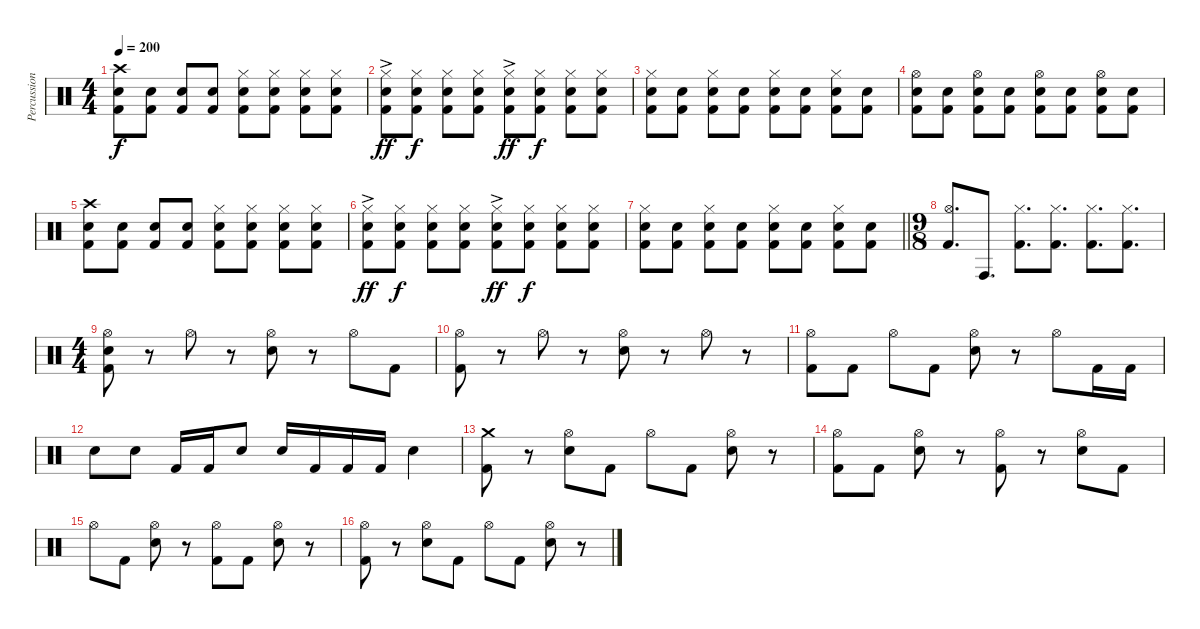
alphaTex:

\track ("Percussions" "Percussion") {instrument percussion}
\staff {score}
\articulation defaults
\ts (4 4)
\tempo 200
\clef neutral
\ks c
("Crash high (hit)" "Electric Snare (hit)" "Kick (hit) 2").8{dy f} ("Electric Snare (hit)" "Kick (hit) 2").8 ("Electric Snare (hit)" "Kick (hit) 2").8 ("Electric Snare (hit)" "Kick (hit) 2").8 ("Hi-Hat (closed)" "Electric Snare (hit)" "Kick (hit) 2").8 ("Hi-Hat (closed)" "Electric Snare (hit)" "Kick (hit) 2").8 ("Hi-Hat (closed)" "Electric Snare (hit)" "Kick (hit) 2").8 ("Hi-Hat (closed)" "Electric Snare (hit)" "Kick (hit) 2").8 |
("Hi-Hat (closed)"{ac} "Electric Snare (hit)" "Kick (hit) 2").8{dy ff} ("Hi-Hat (closed)" "Electric Snare (hit)" "Kick (hit) 2").8{dy f} ("Hi-Hat (closed)" "Electric Snare (hit)" "Kick (hit) 2").8 ("Hi-Hat (closed)" "Electric Snare (hit)" "Kick (hit) 2").8 ("Hi-Hat (closed)"{ac} "Electric Snare (hit)" "Kick (hit) 2").8{dy ff} ("Hi-Hat (closed)" "Electric Snare (hit)" "Kick (hit) 2").8{dy f} ("Hi-Hat (closed)" "Electric Snare (hit)" "Kick (hit) 2").8 ("Hi-Hat (closed)" "Electric Snare (hit)" "Kick (hit) 2").8 |
("Hi-Hat (closed)" "Electric Snare (hit)" "Kick (hit) 2").8 ("Electric Snare (hit)" "Kick (hit) 2").8 ("Hi-Hat (closed)" "Electric Snare (hit)" "Kick (hit) 2").8 ("Electric Snare (hit)" "Kick (hit) 2").8 ("Hi-Hat (closed)" "Electric Snare (hit)" "Kick (hit) 2").8 ("Electric Snare (hit)" "Kick (hit) 2").8 ("Hi-Hat (closed)" "Electric Snare (hit)" "Kick (hit) 2").8 ("Electric Snare (hit)" "Kick (hit) 2").8 |
("Hi-Hat (open)" "Electric Snare (hit)" "Kick (hit) 2").8 ("Electric Snare (hit)" "Kick (hit) 2").8 ("Hi-Hat (open)" "Electric Snare (hit)" "Kick (hit) 2").8 ("Electric Snare (hit)" "Kick (hit) 2").8 ("Hi-Hat (open)" "Electric Snare (hit)" "Kick (hit) 2").8 ("Electric Snare (hit)" "Kick (hit) 2").8 ("Hi-Hat (open)" "Electric Snare (hit)" "Kick (hit) 2").8 ("Electric Snare (hit)" "Kick (hit) 2").8 |
("Crash high (hit)" "Electric Snare (hit)" "Kick (hit) 2").8 ("Electric Snare (hit)" "Kick (hit) 2").8 ("Electric Snare (hit)" "Kick (hit) 2").8 ("Electric Snare (hit)" "Kick (hit) 2").8 ("Hi-Hat (closed)" "Electric Snare (hit)" "Kick (hit) 2").8 ("Hi-Hat (closed)" "Electric Snare (hit)" "Kick (hit) 2").8 ("Hi-Hat (closed)" "Electric Snare (hit)" "Kick (hit) 2").8 ("Hi-Hat (closed)" "Electric Snare (hit)" "Kick (hit) 2").8 |
("Hi-Hat (closed)"{ac} "Electric Snare (hit)" "Kick (hit) 2").8{dy ff} ("Hi-Hat (closed)" "Electric Snare (hit)" "Kick (hit) 2").8{dy f} ("Hi-Hat (closed)" "Electric Snare (hit)" "Kick (hit) 2").8 ("Hi-Hat (closed)" "Electric Snare (hit)" "Kick (hit) 2").8 ("Hi-Hat (closed)"{ac} "Electric Snare (hit)" "Kick (hit) 2").8{dy ff} ("Hi-Hat (closed)" "Electric Snare (hit)" "Kick (hit) 2").8{dy f} ("Hi-Hat (closed)" "Electric Snare (hit)" "Kick (hit) 2").8 ("Hi-Hat (closed)" "Electric Snare (hit)" "Kick (hit) 2").8 |
\barLineRight lightlight
("Hi-Hat (closed)" "Electric Snare (hit)" "Kick (hit) 2").8 ("Electric Snare (hit)" "Kick (hit) 2").8 ("Hi-Hat (closed)" "Electric Snare (hit)" "Kick (hit) 2").8 ("Electric Snare (hit)" "Kick (hit) 2").8 ("Hi-Hat (closed)" "Electric Snare (hit)" "Kick (hit) 2").8 ("Electric Snare (hit)" "Kick (hit) 2").8 ("Hi-Hat (closed)" "Electric Snare (hit)" "Kick (hit) 2").8 ("Electric Snare (hit)" "Kick (hit) 2").8 |
\ts (9 8)
("Hi-Hat (open)" "Kick (hit) 2").8{d} "Conga high (hit)".8{d} ("Hi-Hat (closed)" "Kick (hit) 2").8{d} ("Hi-Hat (closed)" "Kick (hit) 2").8{d} ("Hi-Hat (closed)" "Kick (hit) 2").8{d} ("Hi-Hat (closed)" "Kick (hit) 2").8{d} |
\ts (4 4)
("Hi-Hat (open)" "Electric Snare (hit)" "Kick (hit) 2").8 r.8 "Hi-Hat (open)".8 r.8 ("Hi-Hat (open)" "Electric Snare (hit)").8 r.8 "Hi-Hat (open)".8 "Kick (hit) 2".8 |
("Hi-Hat (open)" "Kick (hit) 2").8 r.8 "Hi-Hat (open)".8 r.8 ("Hi-Hat (open)" "Electric Snare (hit)").8 r.8 "Hi-Hat (open)".8 r.8 |
("Hi-Hat (open)" "Kick (hit) 2").8 "Kick (hit) 2".8 "Hi-Hat (open)".8 "Kick (hit) 2".8 ("Hi-Hat (open)" "Electric Snare (hit)").8 r.8 "Hi-Hat (open)".8 "Kick (hit) 2".16 "Kick (hit) 2".16 |
"Electric Snare (hit)".8 "Electric Snare (hit)".8 "Kick (hit) 2".16 "Kick (hit) 2".16 "Electric Snare (hit)".8 "Electric Snare (hit)".16 "Kick (hit) 2".16 "Kick (hit) 2".16 "Kick (hit) 2".16 "Electric Snare (hit)".4 |
("Crash medium (hit)" "Kick (hit) 2").8 r.8 ("Hi-Hat (open)" "Electric Snare (hit)").8 "Kick (hit) 2".8 "Hi-Hat (open)".8 "Kick (hit) 2".8 ("Hi-Hat (open)" "Electric Snare (hit)").8 r.8 |
("Hi-Hat (open)" "Kick (hit) 2").8 "Kick (hit) 2".8 ("Hi-Hat (open)" "Electric Snare (hit)").8 r.8 ("Hi-Hat (open)" "Kick (hit) 2").8 r.8 ("Hi-Hat (open)" "Electric Snare (hit)").8 "Kick (hit) 2".8 |
"Hi-Hat (open)".8 "Kick (hit) 2".8 ("Hi-Hat (open)" "Electric Snare (hit)").8 r.8 ("Hi-Hat (open)" "Kick (hit) 2").8 "Kick (hit) 2".8 ("Hi-Hat (open)" "Electric Snare (hit)").8 r.8 |
("Hi-Hat (open)" "Kick (hit) 2").8 r.8 ("Hi-Hat (open)" "Electric Snare (hit)").8 "Kick (hit) 2".8 "Hi-Hat (open)".8 "Kick (hit) 2".8 ("Hi-Hat (open)" "Electric Snare (hit)").8 r.8
